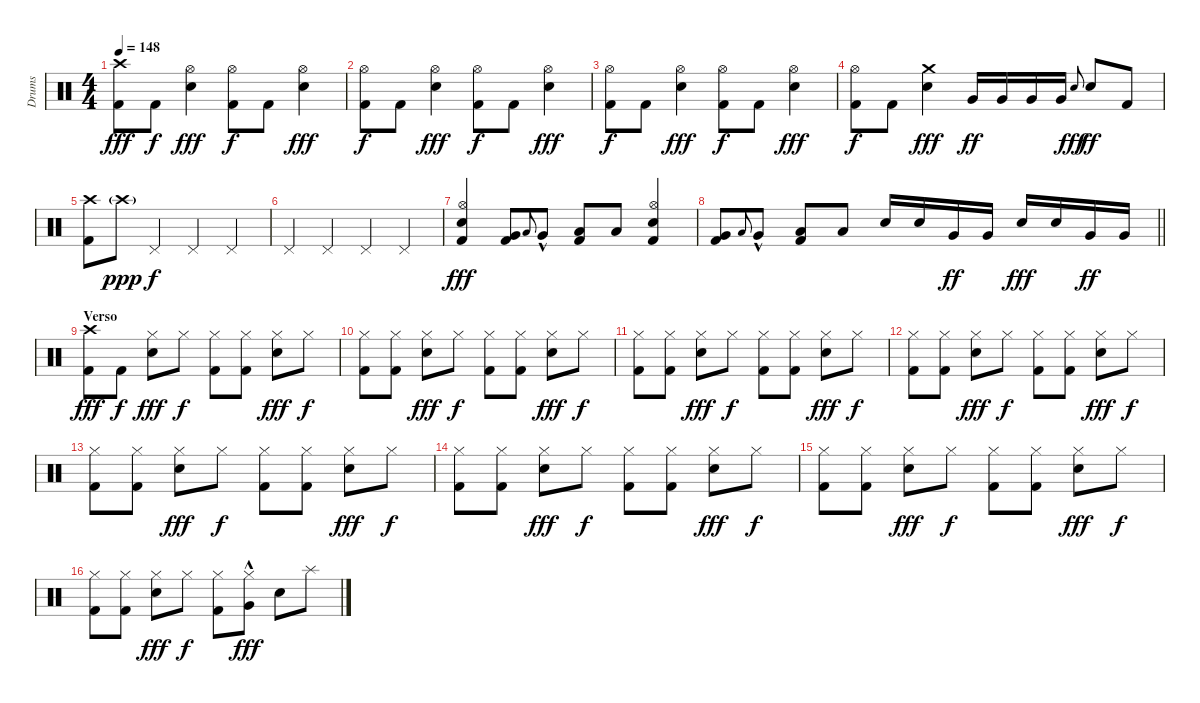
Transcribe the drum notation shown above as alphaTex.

\track ("Drums" "Drums") {instrument percussion}
\staff {score}
\articulation defaults
\ts (4 4)
\tempo 148
\clef neutral
\ks c
("Crash high (hit)" "Kick (hit) 2").8{dy fff} "Kick (hit) 2".8{dy f} ("Hi-Hat (open)" "Electric Snare (hit)").4{dy fff} ("Hi-Hat (open)" "Kick (hit) 2").8{dy f} "Kick (hit) 2".8 ("Hi-Hat (open)" "Electric Snare (hit)").4{dy fff} |
("Hi-Hat (open)" "Kick (hit) 2").8{dy f} "Kick (hit) 2".8 ("Hi-Hat (open)" "Electric Snare (hit)").4{dy fff} ("Hi-Hat (open)" "Kick (hit) 2").8{dy f} "Kick (hit) 2".8 ("Hi-Hat (open)" "Electric Snare (hit)").4{dy fff} |
("Hi-Hat (open)" "Kick (hit) 2").8{dy f} "Kick (hit) 2".8 ("Hi-Hat (open)" "Electric Snare (hit)").4{dy fff} ("Hi-Hat (open)" "Kick (hit) 2").8{dy f} "Kick (hit) 2".8 ("Hi-Hat (open)" "Electric Snare (hit)").4{dy fff} |
("Hi-Hat (open)" "Kick (hit) 2").8{dy f} "Kick (hit) 2".8 ("Crash medium (hit)" "Electric Snare (hit)").4{dy fff} "Very Low Tom (hit)".16{dy ff} "Very Low Tom (hit)".16 "Very Low Tom (hit)".16 "Very Low Tom (hit)".16 "Electric Snare (hit)".8{gr onbeat dy fff} "Electric Snare (hit)".8{dy ff} "Kick (hit) 2".8 |
("Crash high (hit)" "Kick (hit) 2").8 "Crash high (hit)"{g}.8{dy ppp} "Pedal Hi-Hat (hit)".4{dy f} "Pedal Hi-Hat (hit)".4 "Pedal Hi-Hat (hit)".4 |
"Pedal Hi-Hat (hit)".4 "Pedal Hi-Hat (hit)".4 "Pedal Hi-Hat (hit)".4 "Pedal Hi-Hat (hit)".4 |
("Hi-Hat (open)" "Electric Snare (hit)" "Kick (hit) 2").4{dy fff} ("Very Low Tom (hit)" "Kick (hit) 2").8 "Low Tom (hit)".8{gr onbeat} "Very Low Tom (hit)"{hac}.8 ("Low Floor Tom (hit)" "Kick (hit) 2").8 "Low Tom (hit)".8 ("Hi-Hat (open)" "Electric Snare (hit)" "Kick (hit) 2").4 |
\barLineRight lightlight
("Very Low Tom (hit)" "Kick (hit) 2").8 "Low Tom (hit)".8{gr onbeat} "Very Low Tom (hit)"{hac}.8 ("Low Floor Tom (hit)" "Kick (hit) 2").8 "Low Tom (hit)".8 "Electric Snare (hit)".16 "Electric Snare (hit)".16 "Very Low Tom (hit)".16{dy ff} "Very Low Tom (hit)".16 "Electric Snare (hit)".16{dy fff} "Electric Snare (hit)".16 "Very Low Tom (hit)".16{dy ff} "Very Low Tom (hit)".16 |
\section ("" "Verso")
("Crash high (hit)" "Kick (hit) 2").8{dy fff} "Kick (hit) 2".8{dy f} ("Hi-Hat (closed)" "Electric Snare (hit)").8{dy fff} "Hi-Hat (closed)".8{dy f} ("Hi-Hat (closed)" "Kick (hit) 2").8 ("Hi-Hat (closed)" "Kick (hit) 2").8 ("Hi-Hat (closed)" "Electric Snare (hit)").8{dy fff} "Hi-Hat (closed)".8{dy f} |
("Hi-Hat (closed)" "Kick (hit) 2").8 ("Hi-Hat (closed)" "Kick (hit) 2").8 ("Hi-Hat (closed)" "Electric Snare (hit)").8{dy fff} "Hi-Hat (closed)".8{dy f} ("Hi-Hat (closed)" "Kick (hit) 2").8 ("Hi-Hat (closed)" "Kick (hit) 2").8 ("Hi-Hat (closed)" "Electric Snare (hit)").8{dy fff} "Hi-Hat (closed)".8{dy f} |
("Hi-Hat (closed)" "Kick (hit) 2").8 ("Hi-Hat (closed)" "Kick (hit) 2").8 ("Hi-Hat (closed)" "Electric Snare (hit)").8{dy fff} "Hi-Hat (closed)".8{dy f} ("Hi-Hat (closed)" "Kick (hit) 2").8 ("Hi-Hat (closed)" "Kick (hit) 2").8 ("Hi-Hat (closed)" "Electric Snare (hit)").8{dy fff} "Hi-Hat (closed)".8{dy f} |
("Hi-Hat (closed)" "Kick (hit) 2").8 ("Hi-Hat (closed)" "Kick (hit) 2").8 ("Hi-Hat (closed)" "Electric Snare (hit)").8{dy fff} "Hi-Hat (closed)".8{dy f} ("Hi-Hat (closed)" "Kick (hit) 2").8 ("Hi-Hat (closed)" "Kick (hit) 2").8 ("Hi-Hat (closed)" "Electric Snare (hit)").8{dy fff} "Hi-Hat (closed)".8{dy f} |
("Hi-Hat (closed)" "Kick (hit) 2").8 ("Hi-Hat (closed)" "Kick (hit) 2").8 ("Hi-Hat (closed)" "Electric Snare (hit)").8{dy fff} "Hi-Hat (closed)".8{dy f} ("Hi-Hat (closed)" "Kick (hit) 2").8 ("Hi-Hat (closed)" "Kick (hit) 2").8 ("Hi-Hat (closed)" "Electric Snare (hit)").8{dy fff} "Hi-Hat (closed)".8{dy f} |
("Hi-Hat (closed)" "Kick (hit) 2").8 ("Hi-Hat (closed)" "Kick (hit) 2").8 ("Hi-Hat (closed)" "Electric Snare (hit)").8{dy fff} "Hi-Hat (closed)".8{dy f} ("Hi-Hat (closed)" "Kick (hit) 2").8 ("Hi-Hat (closed)" "Kick (hit) 2").8 ("Hi-Hat (closed)" "Electric Snare (hit)").8{dy fff} "Hi-Hat (closed)".8{dy f} |
("Hi-Hat (closed)" "Kick (hit) 2").8 ("Hi-Hat (closed)" "Kick (hit) 2").8 ("Hi-Hat (closed)" "Electric Snare (hit)").8{dy fff} "Hi-Hat (closed)".8{dy f} ("Hi-Hat (closed)" "Kick (hit) 2").8 ("Hi-Hat (closed)" "Kick (hit) 2").8 ("Hi-Hat (closed)" "Electric Snare (hit)").8{dy fff} "Hi-Hat (closed)".8{dy f} |
("Hi-Hat (closed)" "Kick (hit) 2").8 ("Hi-Hat (closed)" "Kick (hit) 2").8 ("Hi-Hat (closed)" "Electric Snare (hit)").8{dy fff} "Hi-Hat (closed)".8{dy f} ("Hi-Hat (closed)" "Kick (hit) 2").8 ("Hi-Hat (closed)" "Very Low Tom (hit)"{hac}).8{dy fff} "Electric Snare (hit)".8 "Splash (hit)".8
